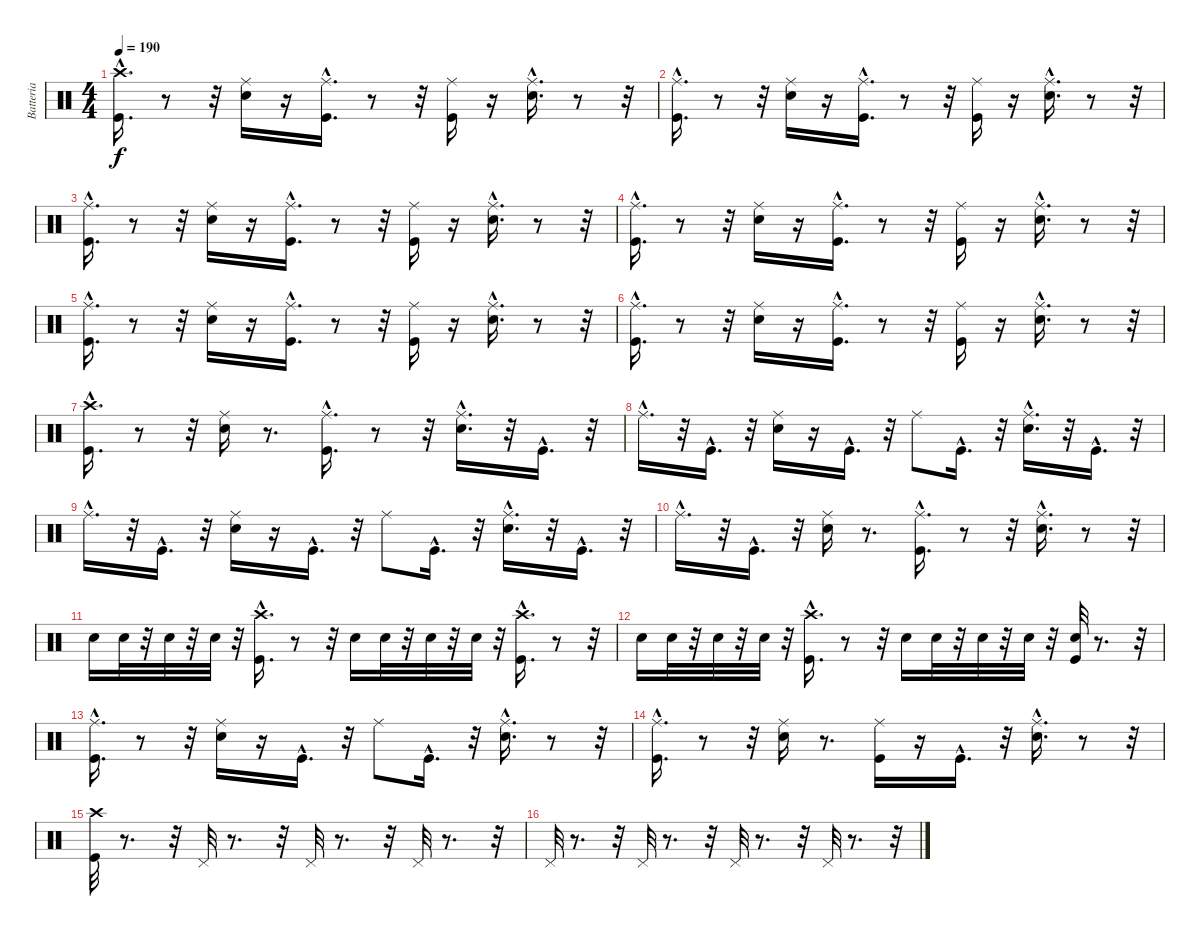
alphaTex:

\track ("Batteria" "Batteria") {instrument percussion}
\staff {score}
\articulation defaults
\ts (4 4)
\tempo 190
\clef neutral
\ks c
("Kick (hit)"{hac} "Crash high (hit)"{hac}).16{d dy f} r.8 r.32 ("Snare (hit) 2" "Ride (middle)").16 r.16 ("Kick (hit)"{hac} "Ride (middle)"{hac}).16{d} r.8 r.32 ("Kick (hit)" "Ride (middle)").16 r.16 ("Snare (hit) 2"{hac} "Ride (middle)"{hac}).16{d} r.8 r.32 |
("Kick (hit)"{hac} "Ride (middle)"{hac}).16{d} r.8 r.32 ("Snare (hit) 2" "Ride (middle)").16 r.16 ("Kick (hit)"{hac} "Ride (middle)"{hac}).16{d} r.8 r.32 ("Kick (hit)" "Ride (middle)").16 r.16 ("Snare (hit) 2"{hac} "Ride (middle)"{hac}).16{d} r.8 r.32 |
("Kick (hit)"{hac} "Ride (middle)"{hac}).16{d} r.8 r.32 ("Snare (hit) 2" "Ride (middle)").16 r.16 ("Kick (hit)"{hac} "Ride (middle)"{hac}).16{d} r.8 r.32 ("Kick (hit)" "Ride (middle)").16 r.16 ("Snare (hit) 2"{hac} "Ride (middle)"{hac}).16{d} r.8 r.32 |
("Kick (hit)"{hac} "Ride (middle)"{hac}).16{d} r.8 r.32 ("Snare (hit) 2" "Ride (middle)").16 r.16 ("Kick (hit)"{hac} "Ride (middle)"{hac}).16{d} r.8 r.32 ("Kick (hit)" "Ride (middle)").16 r.16 ("Snare (hit) 2"{hac} "Ride (middle)"{hac}).16{d} r.8 r.32 |
("Kick (hit)"{hac} "Ride (middle)"{hac}).16{d} r.8 r.32 ("Snare (hit) 2" "Ride (middle)").16 r.16 ("Kick (hit)"{hac} "Ride (middle)"{hac}).16{d} r.8 r.32 ("Kick (hit)" "Ride (middle)").16 r.16 ("Snare (hit) 2"{hac} "Ride (middle)"{hac}).16{d} r.8 r.32 |
("Kick (hit)"{hac} "Ride (middle)"{hac}).16{d} r.8 r.32 ("Snare (hit) 2" "Ride (middle)").16 r.16 ("Kick (hit)"{hac} "Ride (middle)"{hac}).16{d} r.8 r.32 ("Kick (hit)" "Ride (middle)").16 r.16 ("Snare (hit) 2"{hac} "Ride (middle)"{hac}).16{d} r.8 r.32 |
("Kick (hit)"{hac} "Crash high (hit)"{hac}).16{d} r.8 r.32 ("Snare (hit) 2" "Ride (middle)").16 r.8{d} ("Kick (hit)"{hac} "Ride (middle)"{hac}).16{d} r.8 r.32 ("Snare (hit) 2"{hac} "Ride (middle)"{hac}).16{d} r.32 "Kick (hit)"{hac}.16{d} r.32 |
"Ride (middle)"{hac}.16{d} r.32 "Kick (hit)"{hac}.16{d} r.32 ("Snare (hit) 2" "Ride (middle)").16 r.16 "Kick (hit)"{hac}.16{d} r.32 "Ride (middle)".8 "Kick (hit)"{hac}.16{d} r.32 ("Snare (hit) 2"{hac} "Ride (middle)"{hac}).16{d} r.32 "Kick (hit)"{hac}.16{d} r.32 |
"Ride (middle)"{hac}.16{d} r.32 "Kick (hit)"{hac}.16{d} r.32 ("Snare (hit) 2" "Ride (middle)").16 r.16 "Kick (hit)"{hac}.16{d} r.32 "Ride (middle)".8 "Kick (hit)"{hac}.16{d} r.32 ("Snare (hit) 2"{hac} "Ride (middle)"{hac}).16{d} r.32 "Kick (hit)"{hac}.16{d} r.32 |
"Ride (middle)"{hac}.16{d} r.32 "Kick (hit)"{hac}.16{d} r.32 ("Snare (hit) 2" "Ride (middle)").16 r.8{d} ("Ride (middle)"{hac} "Kick (hit)"{hac}).16{d} r.8 r.32 ("Snare (hit) 2"{hac} "Ride (middle)"{hac}).16{d} r.8 r.32 |
"Snare (hit) 2".16 "Snare (hit) 2".32 r.32 "Snare (hit) 2".32 r.32 "Snare (hit) 2".32 r.32 ("Crash high (hit)"{hac} "Kick (hit)"{hac}).16{d} r.8 r.32 "Snare (hit) 2".16 "Snare (hit) 2".32 r.32 "Snare (hit) 2".32 r.32 "Snare (hit) 2".32 r.32 ("Kick (hit)"{hac} "Crash high (hit)"{hac}).16{d} r.8 r.32 |
"Snare (hit) 2".16 "Snare (hit) 2".32 r.32 "Snare (hit) 2".32 r.32 "Snare (hit) 2".32 r.32 ("Crash high (hit)"{hac} "Kick (hit)"{hac}).16{d} r.8 r.32 "Snare (hit) 2".16 "Snare (hit) 2".32 r.32 "Snare (hit) 2".32 r.32 "Snare (hit) 2".32 r.32 ("Snare (hit) 2" "Kick (hit)").32 r.8{d} r.32 |
("Kick (hit)"{hac} "Ride (middle)"{hac}).16{d} r.8 r.32 ("Snare (hit) 2" "Ride (middle)").16 r.16 "Kick (hit)"{hac}.16{d} r.32 "Ride (middle)".8 "Kick (hit)"{hac}.16{d} r.32 ("Snare (hit) 2"{hac} "Ride (middle)"{hac}).16{d} r.8 r.32 |
("Kick (hit)"{hac} "Ride (middle)"{hac}).16{d} r.8 r.32 ("Snare (hit) 2" "Ride (middle)").16 r.8{d} ("Ride (middle)" "Kick (hit)").16 r.16 "Kick (hit)"{hac}.16{d} r.32 ("Snare (hit) 2"{hac} "Ride (middle)"{hac}).16{d} r.8 r.32 |
("Kick (hit)" "Crash high (hit)").32 r.8{d} r.32 "Pedal Hi-Hat (hit)".32 r.8{d} r.32 "Pedal Hi-Hat (hit)".32 r.8{d} r.32 "Pedal Hi-Hat (hit)".32 r.8{d} r.32 |
"Pedal Hi-Hat (hit)".32 r.8{d} r.32 "Pedal Hi-Hat (hit)".32 r.8{d} r.32 "Pedal Hi-Hat (hit)".32 r.8{d} r.32 "Pedal Hi-Hat (hit)".32 r.8{d} r.32
